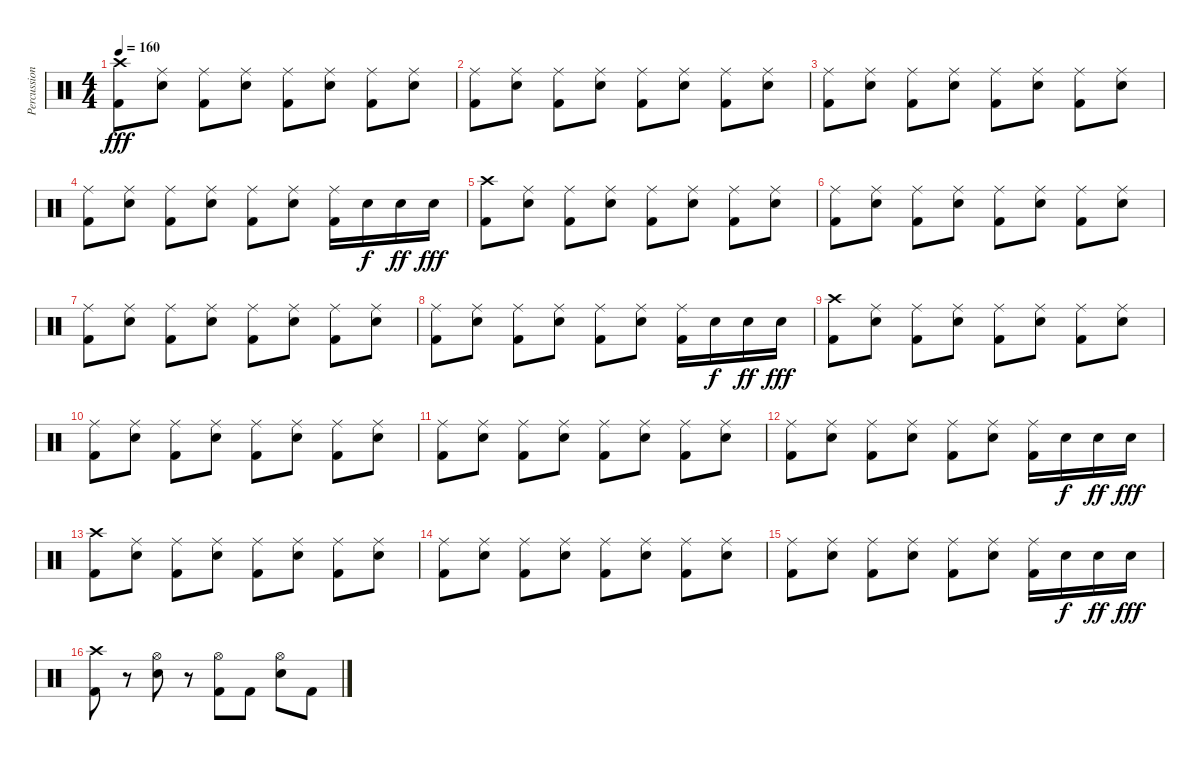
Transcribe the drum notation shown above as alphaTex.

\track ("Percussion" "Percussion") {instrument percussion}
\staff {score}
\articulation defaults
\ts (4 4)
\tempo 160
\clef neutral
\ks c
("Crash high (hit)" "Kick (hit) 2").8{dy fff} ("Ride (middle)" "Electric Snare (hit)").8 ("Ride (middle)" "Kick (hit) 2").8 ("Ride (middle)" "Electric Snare (hit)").8 ("Ride (middle)" "Kick (hit) 2").8 ("Ride (middle)" "Electric Snare (hit)").8 ("Ride (middle)" "Kick (hit) 2").8 ("Ride (middle)" "Electric Snare (hit)").8 |
("Ride (middle)" "Kick (hit) 2").8 ("Ride (middle)" "Electric Snare (hit)").8 ("Ride (middle)" "Kick (hit) 2").8 ("Ride (middle)" "Electric Snare (hit)").8 ("Ride (middle)" "Kick (hit) 2").8 ("Ride (middle)" "Electric Snare (hit)").8 ("Ride (middle)" "Kick (hit) 2").8 ("Ride (middle)" "Electric Snare (hit)").8 |
("Ride (middle)" "Kick (hit) 2").8 ("Ride (middle)" "Electric Snare (hit)").8 ("Ride (middle)" "Kick (hit) 2").8 ("Ride (middle)" "Electric Snare (hit)").8 ("Ride (middle)" "Kick (hit) 2").8 ("Ride (middle)" "Electric Snare (hit)").8 ("Ride (middle)" "Kick (hit) 2").8 ("Ride (middle)" "Electric Snare (hit)").8 |
("Ride (middle)" "Kick (hit) 2").8 ("Ride (middle)" "Electric Snare (hit)").8 ("Ride (middle)" "Kick (hit) 2").8 ("Ride (middle)" "Electric Snare (hit)").8 ("Ride (middle)" "Kick (hit) 2").8 ("Ride (middle)" "Electric Snare (hit)").8 ("Ride (middle)" "Kick (hit) 2").16 "Electric Snare (hit)".16{dy f} "Electric Snare (hit)".16{dy ff} "Electric Snare (hit)".16{dy fff} |
("Crash high (hit)" "Kick (hit) 2").8 ("Ride (middle)" "Electric Snare (hit)").8 ("Ride (middle)" "Kick (hit) 2").8 ("Ride (middle)" "Electric Snare (hit)").8 ("Ride (middle)" "Kick (hit) 2").8 ("Ride (middle)" "Electric Snare (hit)").8 ("Ride (middle)" "Kick (hit) 2").8 ("Ride (middle)" "Electric Snare (hit)").8 |
("Ride (middle)" "Kick (hit) 2").8 ("Ride (middle)" "Electric Snare (hit)").8 ("Ride (middle)" "Kick (hit) 2").8 ("Ride (middle)" "Electric Snare (hit)").8 ("Ride (middle)" "Kick (hit) 2").8 ("Ride (middle)" "Electric Snare (hit)").8 ("Ride (middle)" "Kick (hit) 2").8 ("Ride (middle)" "Electric Snare (hit)").8 |
("Ride (middle)" "Kick (hit) 2").8 ("Ride (middle)" "Electric Snare (hit)").8 ("Ride (middle)" "Kick (hit) 2").8 ("Ride (middle)" "Electric Snare (hit)").8 ("Ride (middle)" "Kick (hit) 2").8 ("Ride (middle)" "Electric Snare (hit)").8 ("Ride (middle)" "Kick (hit) 2").8 ("Ride (middle)" "Electric Snare (hit)").8 |
("Ride (middle)" "Kick (hit) 2").8 ("Ride (middle)" "Electric Snare (hit)").8 ("Ride (middle)" "Kick (hit) 2").8 ("Ride (middle)" "Electric Snare (hit)").8 ("Ride (middle)" "Kick (hit) 2").8 ("Ride (middle)" "Electric Snare (hit)").8 ("Ride (middle)" "Kick (hit) 2").16 "Electric Snare (hit)".16{dy f} "Electric Snare (hit)".16{dy ff} "Electric Snare (hit)".16{dy fff} |
("Crash high (hit)" "Kick (hit) 2").8 ("Ride (middle)" "Electric Snare (hit)").8 ("Ride (middle)" "Kick (hit) 2").8 ("Ride (middle)" "Electric Snare (hit)").8 ("Ride (middle)" "Kick (hit) 2").8 ("Ride (middle)" "Electric Snare (hit)").8 ("Ride (middle)" "Kick (hit) 2").8 ("Ride (middle)" "Electric Snare (hit)").8 |
("Ride (middle)" "Kick (hit) 2").8 ("Ride (middle)" "Electric Snare (hit)").8 ("Ride (middle)" "Kick (hit) 2").8 ("Ride (middle)" "Electric Snare (hit)").8 ("Ride (middle)" "Kick (hit) 2").8 ("Ride (middle)" "Electric Snare (hit)").8 ("Ride (middle)" "Kick (hit) 2").8 ("Ride (middle)" "Electric Snare (hit)").8 |
("Ride (middle)" "Kick (hit) 2").8 ("Ride (middle)" "Electric Snare (hit)").8 ("Ride (middle)" "Kick (hit) 2").8 ("Ride (middle)" "Electric Snare (hit)").8 ("Ride (middle)" "Kick (hit) 2").8 ("Ride (middle)" "Electric Snare (hit)").8 ("Ride (middle)" "Kick (hit) 2").8 ("Ride (middle)" "Electric Snare (hit)").8 |
("Ride (middle)" "Kick (hit) 2").8 ("Ride (middle)" "Electric Snare (hit)").8 ("Ride (middle)" "Kick (hit) 2").8 ("Ride (middle)" "Electric Snare (hit)").8 ("Ride (middle)" "Kick (hit) 2").8 ("Ride (middle)" "Electric Snare (hit)").8 ("Ride (middle)" "Kick (hit) 2").16 "Electric Snare (hit)".16{dy f} "Electric Snare (hit)".16{dy ff} "Electric Snare (hit)".16{dy fff} |
("Crash high (hit)" "Kick (hit) 2").8 ("Ride (middle)" "Electric Snare (hit)").8 ("Ride (middle)" "Kick (hit) 2").8 ("Ride (middle)" "Electric Snare (hit)").8 ("Ride (middle)" "Kick (hit) 2").8 ("Ride (middle)" "Electric Snare (hit)").8 ("Ride (middle)" "Kick (hit) 2").8 ("Ride (middle)" "Electric Snare (hit)").8 |
("Ride (middle)" "Kick (hit) 2").8 ("Ride (middle)" "Electric Snare (hit)").8 ("Ride (middle)" "Kick (hit) 2").8 ("Ride (middle)" "Electric Snare (hit)").8 ("Ride (middle)" "Kick (hit) 2").8 ("Ride (middle)" "Electric Snare (hit)").8 ("Ride (middle)" "Kick (hit) 2").8 ("Ride (middle)" "Electric Snare (hit)").8 |
("Ride (middle)" "Kick (hit) 2").8 ("Ride (middle)" "Electric Snare (hit)").8 ("Ride (middle)" "Kick (hit) 2").8 ("Ride (middle)" "Electric Snare (hit)").8 ("Ride (middle)" "Kick (hit) 2").8 ("Ride (middle)" "Electric Snare (hit)").8 ("Ride (middle)" "Kick (hit) 2").16 "Electric Snare (hit)".16{dy f} "Electric Snare (hit)".16{dy ff} "Electric Snare (hit)".16{dy fff} |
("Crash high (hit)" "Kick (hit) 2").8 r.8 ("Hi-Hat (open)" "Electric Snare (hit)").8 r.8 ("Hi-Hat (open)" "Kick (hit) 2").8 "Kick (hit) 2".8 ("Hi-Hat (open)" "Electric Snare (hit)").8 "Kick (hit) 2".8
